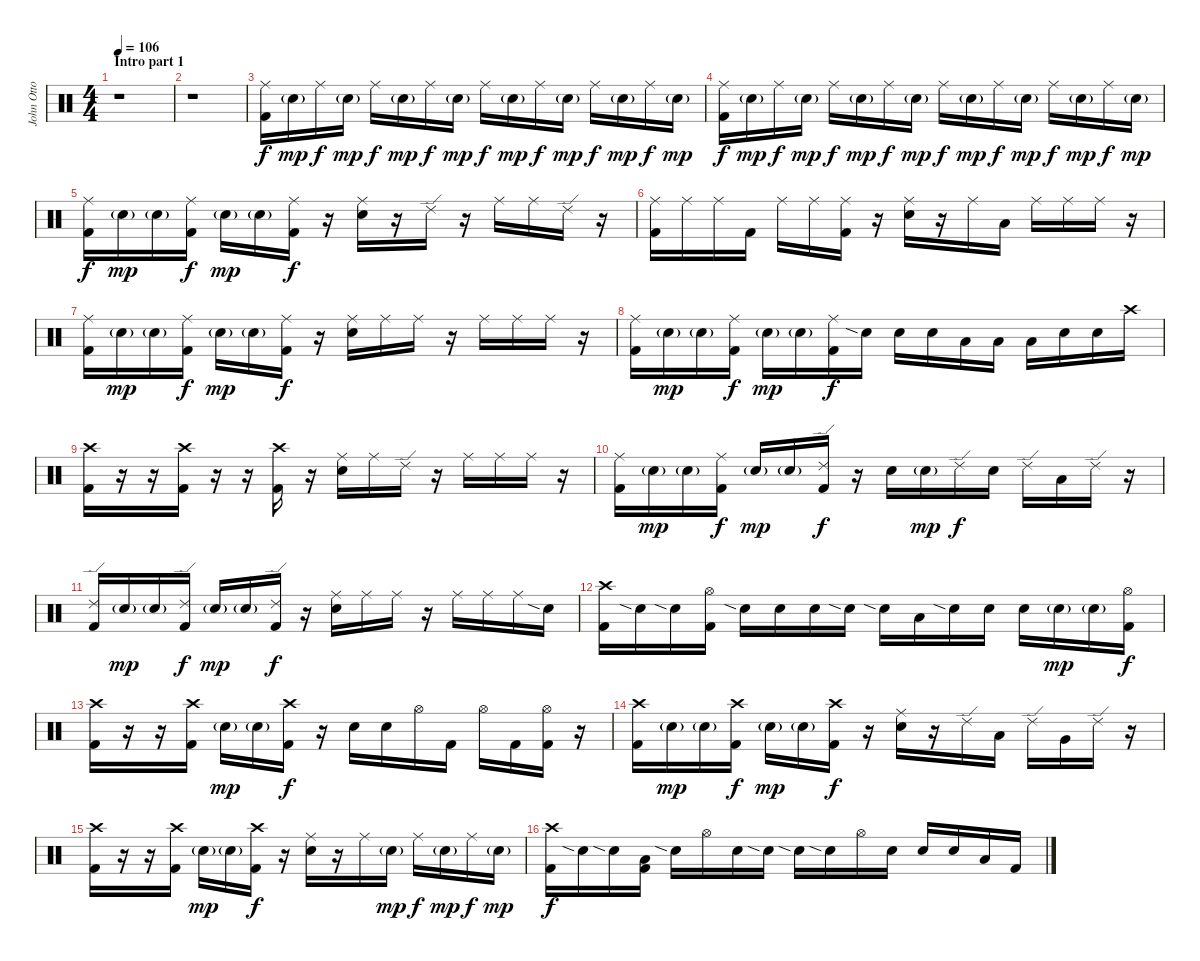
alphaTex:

\track ("John Otto - Drums" "John Otto ") {instrument percussion}
\staff {score}
\articulation defaults
\ts (4 4)
\section ("" "Intro part 1")
\tempo 106
\clef neutral
\ks c
r.1{dy f} |
r.1 |
("Ride (middle)" "Kick (hit) 2").16 "Snare (hit) 2"{g}.16{dy mp} "Ride (middle)".16{dy f} "Snare (hit) 2"{g}.16{dy mp} "Ride (middle)".16{dy f} "Snare (hit) 2"{g}.16{dy mp} "Ride (middle)".16{dy f} "Snare (hit) 2"{g}.16{dy mp} "Ride (middle)".16{dy f} "Snare (hit) 2"{g}.16{dy mp} "Ride (middle)".16{dy f} "Snare (hit) 2"{g}.16{dy mp} "Ride (middle)".16{dy f} "Snare (hit) 2"{g}.16{dy mp} "Ride (middle)".16{dy f} "Snare (hit) 2"{g}.16{dy mp} |
("Ride (middle)" "Kick (hit) 2").16{dy f} "Snare (hit) 2"{g}.16{dy mp} "Ride (middle)".16{dy f} "Snare (hit) 2"{g}.16{dy mp} "Ride (middle)".16{dy f} "Snare (hit) 2"{g}.16{dy mp} "Ride (middle)".16{dy f} "Snare (hit) 2"{g}.16{dy mp} "Ride (middle)".16{dy f} "Snare (hit) 2"{g}.16{dy mp} "Ride (middle)".16{dy f} "Snare (hit) 2"{g}.16{dy mp} "Ride (middle)".16{dy f} "Snare (hit) 2"{g}.16{dy mp} "Ride (middle)".16{dy f} "Snare (hit) 2"{g}.16{dy mp} |
("Ride (middle)" "Kick (hit) 2").16{dy f} "Snare (hit) 2"{g}.16{dy mp} "Snare (hit) 2"{g}.16 ("Ride (middle)" "Kick (hit) 2").16{dy f} "Snare (hit) 2"{g}.16{dy mp} "Snare (hit) 2"{g}.16 ("Ride (middle)" "Kick (hit) 2").16{dy f} r.16 ("Ride (middle)" "Snare (hit) 2").16 r.16 "Ride (edge) 2".16 r.16 "Ride (middle)".16 "Ride (middle)".16 "Ride (edge) 2".16 r.16 |
("Ride (middle)" "Kick (hit) 2").16 "Ride (middle)".16 "Ride (middle)".16 "Kick (hit) 2".16 "Ride (middle)".16 "Ride (middle)".16 ("Ride (middle)" "Kick (hit) 2").16 r.16 ("Ride (middle)" "Snare (hit) 2").16 r.16 "Ride (middle)".16 "Low Floor Tom (hit)".16 "Ride (middle)".16 "Ride (middle)".16 "Ride (middle)".16 r.16 |
("Ride (middle)" "Kick (hit) 2").16 "Snare (hit) 2"{g}.16{dy mp} "Snare (hit) 2"{g}.16 ("Ride (middle)" "Kick (hit) 2").16{dy f} "Snare (hit) 2"{g}.16{dy mp} "Snare (hit) 2"{g}.16 ("Ride (middle)" "Kick (hit) 2").16{dy f} r.16 ("Ride (middle)" "Snare (hit) 2").16 "Ride (middle)".16 "Ride (middle)".16 r.16 "Ride (middle)".16 "Ride (middle)".16 "Ride (middle)".16 r.16 |
("Ride (middle)" "Kick (hit) 2").16 "Snare (hit) 2"{g}.16{dy mp} "Snare (hit) 2"{g}.16 ("Ride (middle)" "Kick (hit) 2").16{dy f} "Snare (hit) 2"{g}.16{dy mp} "Snare (hit) 2"{g}.16 ("Ride (middle)" "Kick (hit) 2").16{dy f} "Snare (hit) 2"{sia}.16 "Snare (hit) 2".16 "Snare (hit) 2".16 "Low Floor Tom (hit)".16 "Low Floor Tom (hit)".16 "Low Floor Tom (hit)".16 "Snare (hit) 2".16 "Snare (hit) 2".16 "Crash high (hit)".16 |
("Crash high (hit)" "Kick (hit) 2").16 r.16 r.16 ("Crash high (hit)" "Kick (hit) 2").16 r.16 r.16 ("Crash high (hit)" "Kick (hit) 2").16 r.16 ("Ride (middle)" "Snare (hit) 2").16 "Ride (middle)".16 "Ride (edge) 2".16 r.16 "Ride (middle)".16 "Ride (middle)".16 "Ride (middle)".16 r.16 |
("Ride (middle)" "Kick (hit) 2").16 "Snare (hit) 2"{g}.16{dy mp} "Snare (hit) 2"{g}.16 ("Ride (middle)" "Kick (hit) 2").16{dy f} "Snare (hit) 2"{g}.16{dy mp} "Snare (hit) 2"{g}.16 ("Ride (edge) 2" "Kick (hit) 2").16{dy f} r.16 "Snare (hit) 2".16 "Snare (hit) 2"{g}.16{dy mp} "Ride (edge) 2".16{dy f} "Snare (hit) 2".16 "Ride (edge) 2".16 "Low Floor Tom (hit)".16 "Ride (edge) 2".16 r.16 |
("Ride (edge) 2" "Kick (hit) 2").16 "Snare (hit) 2"{g}.16{dy mp} "Snare (hit) 2"{g}.16 ("Ride (edge) 2" "Kick (hit) 2").16{dy f} "Snare (hit) 2"{g}.16{dy mp} "Snare (hit) 2"{g}.16 ("Ride (edge) 2" "Kick (hit) 2").16{dy f} r.16 ("Ride (middle)" "Snare (hit) 2").16 "Ride (middle)".16 "Ride (middle)".16 r.16 "Ride (middle)".16 "Ride (middle)".16 "Ride (middle)".16 "Snare (hit) 2"{sia}.16 |
("Crash high (hit)" "Kick (hit) 2").16 "Snare (hit) 2"{sia}.16 "Snare (hit) 2"{sia}.16 ("Hi-Hat (open)" "Kick (hit) 2").16 "Snare (hit) 2"{sia}.16 "Snare (hit) 2".16 "Snare (hit) 2".16 "Snare (hit) 2"{sia}.16 "Snare (hit) 2"{sia}.16 "Low Floor Tom (hit)".16 "Snare (hit) 2"{sia}.16 "Snare (hit) 2".16 "Snare (hit) 2".16 "Snare (hit) 2"{g}.16{dy mp} "Snare (hit) 2"{g}.16 ("Hi-Hat (open)" "Kick (hit) 2").16{dy f} |
("Crash high (hit)" "Kick (hit) 2").16 r.16 r.16 ("Crash high (hit)" "Kick (hit) 2").16 "Snare (hit) 2"{g}.16{dy mp} "Snare (hit) 2"{g}.16 ("Crash high (hit)" "Kick (hit) 2").16{dy f} r.16 "Snare (hit) 2".16 "Snare (hit) 2".16 "Hi-Hat (open)".16 "Kick (hit) 2".16 "Hi-Hat (open)".16 "Kick (hit) 2".16 ("Hi-Hat (open)" "Kick (hit) 2").16 r.16 |
("Crash high (hit)" "Kick (hit) 2").16 "Snare (hit) 2"{g}.16{dy mp} "Snare (hit) 2"{g}.16 ("Crash high (hit)" "Kick (hit) 2").16{dy f} "Snare (hit) 2"{g}.16{dy mp} "Snare (hit) 2"{g}.16 ("Crash high (hit)" "Kick (hit) 2").16{dy f} r.16 ("Ride (middle)" "Snare (hit) 2").16 r.16 "Ride (edge) 2".16 "Low Floor Tom (hit)".16 "Ride (edge) 2".16 "Very Low Tom (hit)".16 "Ride (edge) 2".16 r.16 |
("Crash high (hit)" "Kick (hit) 2").16 r.16 r.16 ("Crash high (hit)" "Kick (hit) 2").16 "Snare (hit) 2"{g}.16{dy mp} "Snare (hit) 2"{g}.16 ("Crash high (hit)" "Kick (hit) 2").16{dy f} r.16 ("Ride (middle)" "Snare (hit) 2").16 r.16 "Ride (middle)".16 "Snare (hit) 2"{g}.16{dy mp} "Ride (middle)".16{dy f} "Snare (hit) 2"{g}.16{dy mp} "Ride (middle)".16{dy f} "Snare (hit) 2"{g}.16{dy mp} |
("Crash high (hit)" "Kick (hit) 2").16{dy f} "Snare (hit) 2"{sia}.16 "Snare (hit) 2"{sia}.16 ("Low Floor Tom (hit)" "Kick (hit) 2").16 "Snare (hit) 2"{sia}.16 "Hi-Hat (open)".16 "Snare (hit) 2".16 "Snare (hit) 2"{sia}.16 "Snare (hit) 2"{sia}.16 "Snare (hit) 2"{sia}.16 "Hi-Hat (open)".16 "Snare (hit) 2".16 "Snare (hit) 2".16 "Snare (hit) 2".16 "Low Floor Tom (hit)".16 "Kick (hit) 2".16
